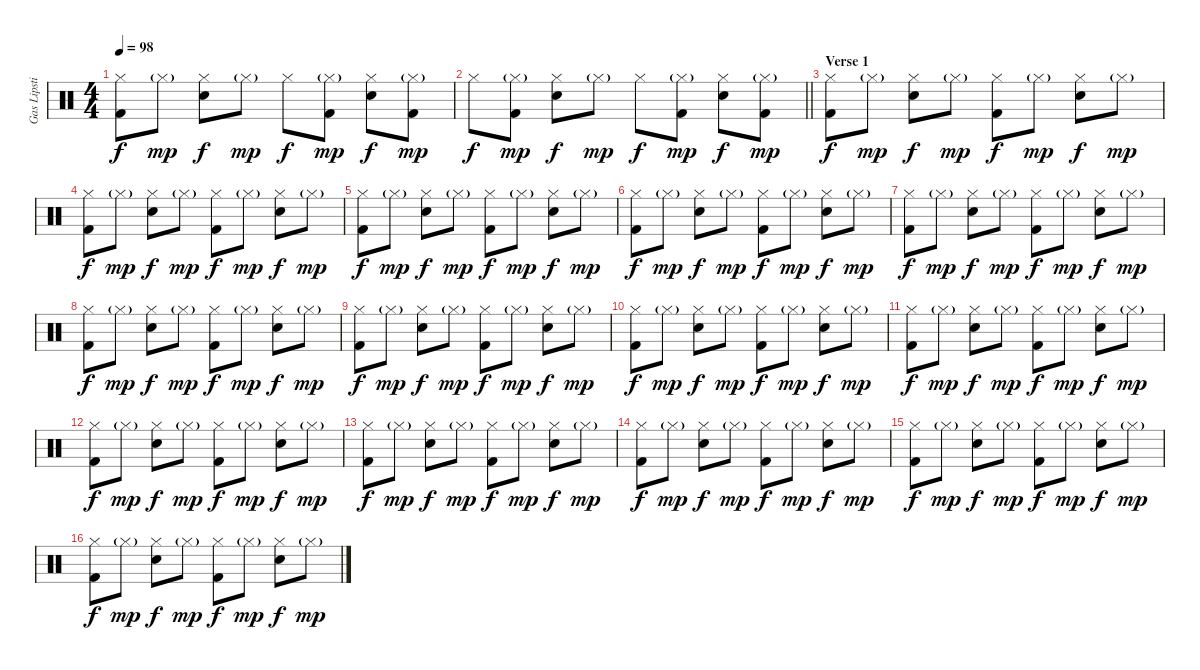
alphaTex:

\track ("Gas Lipstick (Drums)" "Gas Lipsti") {instrument percussion}
\staff {score}
\articulation defaults
\ts (4 4)
\tempo 98
\clef neutral
\ks c
("Hi-Hat (closed)" "Kick (hit) 2").8{dy f} "Hi-Hat (closed)"{g}.8{dy mp} ("Hi-Hat (closed)" "Snare (hit) 2").8{dy f} "Hi-Hat (closed)"{g}.8{dy mp} "Hi-Hat (closed)".8{dy f} ("Hi-Hat (closed)"{g} "Kick (hit) 2").8{dy mp} ("Hi-Hat (closed)" "Snare (hit) 2").8{dy f} ("Hi-Hat (closed)"{g} "Kick (hit) 2").8{dy mp} |
\barLineRight lightlight "Hi-Hat (closed)".8{dy f}
("Hi-Hat (closed)"{g} "Kick (hit) 2").8{dy mp} ("Hi-Hat (closed)" "Snare (hit) 2").8{dy f} "Hi-Hat (closed)"{g}.8{dy mp} "Hi-Hat (closed)".8{dy f} ("Hi-Hat (closed)"{g} "Kick (hit) 2").8{dy mp} ("Hi-Hat (closed)" "Snare (hit) 2").8{dy f} ("Hi-Hat (closed)"{g} "Kick (hit) 2").8{dy mp} |
\section ("" "Verse 1")
("Hi-Hat (closed)" "Kick (hit) 2").8{dy f} "Hi-Hat (closed)"{g}.8{dy mp} ("Hi-Hat (closed)" "Snare (hit) 2").8{dy f} "Hi-Hat (closed)"{g}.8{dy mp} ("Hi-Hat (closed)" "Kick (hit) 2").8{dy f} "Hi-Hat (closed)"{g}.8{dy mp} ("Hi-Hat (closed)" "Snare (hit) 2").8{dy f} "Hi-Hat (closed)"{g}.8{dy mp} |
("Hi-Hat (closed)" "Kick (hit) 2").8{dy f} "Hi-Hat (closed)"{g}.8{dy mp} ("Hi-Hat (closed)" "Snare (hit) 2").8{dy f} "Hi-Hat (closed)"{g}.8{dy mp} ("Hi-Hat (closed)" "Kick (hit) 2").8{dy f} "Hi-Hat (closed)"{g}.8{dy mp} ("Hi-Hat (closed)" "Snare (hit) 2").8{dy f} "Hi-Hat (closed)"{g}.8{dy mp} |
("Hi-Hat (closed)" "Kick (hit) 2").8{dy f} "Hi-Hat (closed)"{g}.8{dy mp} ("Hi-Hat (closed)" "Snare (hit) 2").8{dy f} "Hi-Hat (closed)"{g}.8{dy mp} ("Hi-Hat (closed)" "Kick (hit) 2").8{dy f} "Hi-Hat (closed)"{g}.8{dy mp} ("Hi-Hat (closed)" "Snare (hit) 2").8{dy f} "Hi-Hat (closed)"{g}.8{dy mp} |
("Hi-Hat (closed)" "Kick (hit) 2").8{dy f} "Hi-Hat (closed)"{g}.8{dy mp} ("Hi-Hat (closed)" "Snare (hit) 2").8{dy f} "Hi-Hat (closed)"{g}.8{dy mp} ("Hi-Hat (closed)" "Kick (hit) 2").8{dy f} "Hi-Hat (closed)"{g}.8{dy mp} ("Hi-Hat (closed)" "Snare (hit) 2").8{dy f} "Hi-Hat (closed)"{g}.8{dy mp} |
("Hi-Hat (closed)" "Kick (hit) 2").8{dy f} "Hi-Hat (closed)"{g}.8{dy mp} ("Hi-Hat (closed)" "Snare (hit) 2").8{dy f} "Hi-Hat (closed)"{g}.8{dy mp} ("Hi-Hat (closed)" "Kick (hit) 2").8{dy f} "Hi-Hat (closed)"{g}.8{dy mp} ("Hi-Hat (closed)" "Snare (hit) 2").8{dy f} "Hi-Hat (closed)"{g}.8{dy mp} |
("Hi-Hat (closed)" "Kick (hit) 2").8{dy f} "Hi-Hat (closed)"{g}.8{dy mp} ("Hi-Hat (closed)" "Snare (hit) 2").8{dy f} "Hi-Hat (closed)"{g}.8{dy mp} ("Hi-Hat (closed)" "Kick (hit) 2").8{dy f} "Hi-Hat (closed)"{g}.8{dy mp} ("Hi-Hat (closed)" "Snare (hit) 2").8{dy f} "Hi-Hat (closed)"{g}.8{dy mp} |
("Hi-Hat (closed)" "Kick (hit) 2").8{dy f} "Hi-Hat (closed)"{g}.8{dy mp} ("Hi-Hat (closed)" "Snare (hit) 2").8{dy f} "Hi-Hat (closed)"{g}.8{dy mp} ("Hi-Hat (closed)" "Kick (hit) 2").8{dy f} "Hi-Hat (closed)"{g}.8{dy mp} ("Hi-Hat (closed)" "Snare (hit) 2").8{dy f} "Hi-Hat (closed)"{g}.8{dy mp} |
("Hi-Hat (closed)" "Kick (hit) 2").8{dy f} "Hi-Hat (closed)"{g}.8{dy mp} ("Hi-Hat (closed)" "Snare (hit) 2").8{dy f} "Hi-Hat (closed)"{g}.8{dy mp} ("Hi-Hat (closed)" "Kick (hit) 2").8{dy f} "Hi-Hat (closed)"{g}.8{dy mp} ("Hi-Hat (closed)" "Snare (hit) 2").8{dy f} "Hi-Hat (closed)"{g}.8{dy mp} |
("Hi-Hat (closed)" "Kick (hit) 2").8{dy f} "Hi-Hat (closed)"{g}.8{dy mp} ("Hi-Hat (closed)" "Snare (hit) 2").8{dy f} "Hi-Hat (closed)"{g}.8{dy mp} ("Hi-Hat (closed)" "Kick (hit) 2").8{dy f} "Hi-Hat (closed)"{g}.8{dy mp} ("Hi-Hat (closed)" "Snare (hit) 2").8{dy f} "Hi-Hat (closed)"{g}.8{dy mp} |
("Hi-Hat (closed)" "Kick (hit) 2").8{dy f} "Hi-Hat (closed)"{g}.8{dy mp} ("Hi-Hat (closed)" "Snare (hit) 2").8{dy f} "Hi-Hat (closed)"{g}.8{dy mp} ("Hi-Hat (closed)" "Kick (hit) 2").8{dy f} "Hi-Hat (closed)"{g}.8{dy mp} ("Hi-Hat (closed)" "Snare (hit) 2").8{dy f} "Hi-Hat (closed)"{g}.8{dy mp} |
("Hi-Hat (closed)" "Kick (hit) 2").8{dy f} "Hi-Hat (closed)"{g}.8{dy mp} ("Hi-Hat (closed)" "Snare (hit) 2").8{dy f} "Hi-Hat (closed)"{g}.8{dy mp} ("Hi-Hat (closed)" "Kick (hit) 2").8{dy f} "Hi-Hat (closed)"{g}.8{dy mp} ("Hi-Hat (closed)" "Snare (hit) 2").8{dy f} "Hi-Hat (closed)"{g}.8{dy mp} |
("Hi-Hat (closed)" "Kick (hit) 2").8{dy f} "Hi-Hat (closed)"{g}.8{dy mp} ("Hi-Hat (closed)" "Snare (hit) 2").8{dy f} "Hi-Hat (closed)"{g}.8{dy mp} ("Hi-Hat (closed)" "Kick (hit) 2").8{dy f} "Hi-Hat (closed)"{g}.8{dy mp} ("Hi-Hat (closed)" "Snare (hit) 2").8{dy f} "Hi-Hat (closed)"{g}.8{dy mp} |
("Hi-Hat (closed)" "Kick (hit) 2").8{dy f} "Hi-Hat (closed)"{g}.8{dy mp} ("Hi-Hat (closed)" "Snare (hit) 2").8{dy f} "Hi-Hat (closed)"{g}.8{dy mp} ("Hi-Hat (closed)" "Kick (hit) 2").8{dy f} "Hi-Hat (closed)"{g}.8{dy mp} ("Hi-Hat (closed)" "Snare (hit) 2").8{dy f} "Hi-Hat (closed)"{g}.8{dy mp} |
("Hi-Hat (closed)" "Kick (hit) 2").8{dy f} "Hi-Hat (closed)"{g}.8{dy mp} ("Hi-Hat (closed)" "Snare (hit) 2").8{dy f} "Hi-Hat (closed)"{g}.8{dy mp} ("Hi-Hat (closed)" "Kick (hit) 2").8{dy f} "Hi-Hat (closed)"{g}.8{dy mp} ("Hi-Hat (closed)" "Snare (hit) 2").8{dy f} "Hi-Hat (closed)"{g}.8{dy mp}
